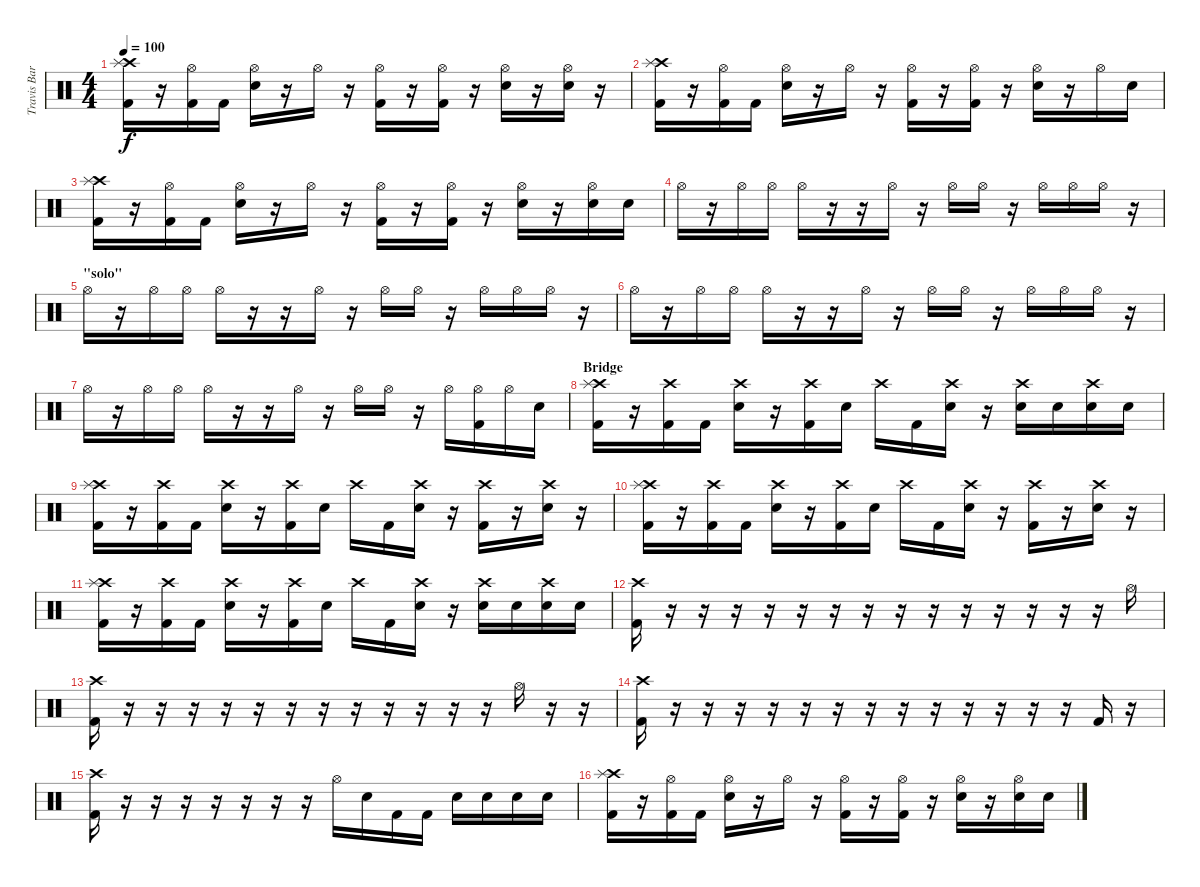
\track ("Travis Barker (Schlagzeug)" "Travis Bar") {instrument percussion}
\staff {score}
\articulation defaults
\ts (4 4)
\tempo 100
\clef neutral
\ks c
("Crash high (hit)" "Splash (hit)" "Kick (hit) 2").16{dy f} r.16 ("Hi-Hat (open)" "Kick (hit) 2").16 "Kick (hit) 2".16 ("Hi-Hat (open)" "Electric Snare (hit)").16 r.16 "Hi-Hat (open)".16 r.16 ("Hi-Hat (open)" "Kick (hit) 2").16 r.16 ("Hi-Hat (open)" "Kick (hit) 2").16 r.16 ("Hi-Hat (open)" "Electric Snare (hit)").16 r.16 ("Hi-Hat (open)" "Electric Snare (hit)").16 r.16 |
("Crash high (hit)" "Splash (hit)" "Kick (hit) 2").16 r.16 ("Hi-Hat (open)" "Kick (hit) 2").16 "Kick (hit) 2".16 ("Hi-Hat (open)" "Electric Snare (hit)").16 r.16 "Hi-Hat (open)".16 r.16 ("Hi-Hat (open)" "Kick (hit) 2").16 r.16 ("Hi-Hat (open)" "Kick (hit) 2").16 r.16 ("Hi-Hat (open)" "Electric Snare (hit)").16 r.16 "Hi-Hat (open)".16 "Electric Snare (hit)".16 |
("Crash high (hit)" "Splash (hit)" "Kick (hit) 2").16 r.16 ("Hi-Hat (open)" "Kick (hit) 2").16 "Kick (hit) 2".16 ("Hi-Hat (open)" "Electric Snare (hit)").16 r.16 "Hi-Hat (open)".16 r.16 ("Hi-Hat (open)" "Kick (hit) 2").16 r.16 ("Hi-Hat (open)" "Kick (hit) 2").16 r.16 ("Hi-Hat (open)" "Electric Snare (hit)").16 r.16 ("Hi-Hat (open)" "Electric Snare (hit)").16 "Electric Snare (hit)".16 |
"Hi-Hat (open)".16 r.16 "Hi-Hat (open)".16 "Hi-Hat (open)".16 "Hi-Hat (open)".16 r.16 r.16 "Hi-Hat (open)".16 r.16 "Hi-Hat (open)".16 "Hi-Hat (open)".16 r.16 "Hi-Hat (open)".16 "Hi-Hat (open)".16 "Hi-Hat (open)".16 r.16 |
\section ("" "\"solo\"")
"Hi-Hat (open)".16 r.16 "Hi-Hat (open)".16 "Hi-Hat (open)".16 "Hi-Hat (open)".16 r.16 r.16 "Hi-Hat (open)".16 r.16 "Hi-Hat (open)".16 "Hi-Hat (open)".16 r.16 "Hi-Hat (open)".16 "Hi-Hat (open)".16 "Hi-Hat (open)".16 r.16 |
"Hi-Hat (open)".16 r.16 "Hi-Hat (open)".16 "Hi-Hat (open)".16 "Hi-Hat (open)".16 r.16 r.16 "Hi-Hat (open)".16 r.16 "Hi-Hat (open)".16 "Hi-Hat (open)".16 r.16 "Hi-Hat (open)".16 "Hi-Hat (open)".16 "Hi-Hat (open)".16 r.16 |
"Hi-Hat (open)".16 r.16 "Hi-Hat (open)".16 "Hi-Hat (open)".16 "Hi-Hat (open)".16 r.16 r.16 "Hi-Hat (open)".16 r.16 "Hi-Hat (open)".16 "Hi-Hat (open)".16 r.16 "Hi-Hat (open)".16 ("Hi-Hat (open)" "Kick (hit) 2").16 "Hi-Hat (open)".16 "Electric Snare (hit)".16 |
\section ("" "Bridge")
("Crash high (hit)" "Splash (hit)" "Kick (hit) 2").16 r.16 ("Crash high (hit)" "Kick (hit) 2").16 "Kick (hit) 2".16 ("Crash high (hit)" "Electric Snare (hit)").16 r.16 ("Crash high (hit)" "Kick (hit) 2").16 "Electric Snare (hit)".16 "Crash high (hit)".16 "Kick (hit) 2".16 ("Crash high (hit)" "Electric Snare (hit)").16 r.16 ("Crash high (hit)" "Electric Snare (hit)").16 "Electric Snare (hit)".16 ("Crash high (hit)" "Electric Snare (hit)").16 "Electric Snare (hit)".16 |
("Crash high (hit)" "Splash (hit)" "Kick (hit) 2").16 r.16 ("Crash high (hit)" "Kick (hit) 2").16 "Kick (hit) 2".16 ("Crash high (hit)" "Electric Snare (hit)").16 r.16 ("Crash high (hit)" "Kick (hit) 2").16 "Electric Snare (hit)".16 "Crash high (hit)".16 "Kick (hit) 2".16 ("Crash high (hit)" "Electric Snare (hit)").16 r.16 ("Crash high (hit)" "Kick (hit) 2").16 r.16 ("Crash high (hit)" "Electric Snare (hit)").16 r.16 |
("Crash high (hit)" "Splash (hit)" "Kick (hit) 2").16 r.16 ("Crash high (hit)" "Kick (hit) 2").16 "Kick (hit) 2".16 ("Crash high (hit)" "Electric Snare (hit)").16 r.16 ("Crash high (hit)" "Kick (hit) 2").16 "Electric Snare (hit)".16 "Crash high (hit)".16 "Kick (hit) 2".16 ("Crash high (hit)" "Electric Snare (hit)").16 r.16 ("Crash high (hit)" "Kick (hit) 2").16 r.16 ("Crash high (hit)" "Electric Snare (hit)").16 r.16 |
("Crash high (hit)" "Splash (hit)" "Kick (hit) 2").16 r.16 ("Crash high (hit)" "Kick (hit) 2").16 "Kick (hit) 2".16 ("Crash high (hit)" "Electric Snare (hit)").16 r.16 ("Crash high (hit)" "Kick (hit) 2").16 "Electric Snare (hit)".16 "Crash high (hit)".16 "Kick (hit) 2".16 ("Crash high (hit)" "Electric Snare (hit)").16 r.16 ("Crash high (hit)" "Electric Snare (hit)").16 "Electric Snare (hit)".16 ("Crash high (hit)" "Electric Snare (hit)").16 "Electric Snare (hit)".16 |
("Crash high (hit)" "Kick (hit) 2").16 r.16 r.16 r.16 r.16 r.16 r.16 r.16 r.16 r.16 r.16 r.16 r.16 r.16 r.16 "Hi-Hat (open)".16 |
("Crash high (hit)" "Kick (hit) 2").16 r.16 r.16 r.16 r.16 r.16 r.16 r.16 r.16 r.16 r.16 r.16 r.16 "Hi-Hat (open)".16 r.16 r.16 |
("Crash high (hit)" "Kick (hit) 2").16 r.16 r.16 r.16 r.16 r.16 r.16 r.16 r.16 r.16 r.16 r.16 r.16 r.16 "Kick (hit) 2".16 r.16 |
("Crash high (hit)" "Kick (hit) 2").16 r.16 r.16 r.16 r.16 r.16 r.16 r.16 "Hi-Hat (open)".16 "Electric Snare (hit)".16 "Kick (hit) 2".16 "Kick (hit) 2".16 "Electric Snare (hit)".16 "Electric Snare (hit)".16 "Electric Snare (hit)".16 "Electric Snare (hit)".16 |
("Crash high (hit)" "Splash (hit)" "Kick (hit) 2").16 r.16 ("Hi-Hat (open)" "Kick (hit) 2").16 "Kick (hit) 2".16 ("Hi-Hat (open)" "Electric Snare (hit)").16 r.16 "Hi-Hat (open)".16 r.16 ("Hi-Hat (open)" "Kick (hit) 2").16 r.16 ("Hi-Hat (open)" "Kick (hit) 2").16 r.16 ("Hi-Hat (open)" "Electric Snare (hit)").16 r.16 ("Hi-Hat (open)" "Electric Snare (hit)").16 "Electric Snare (hit)".16
